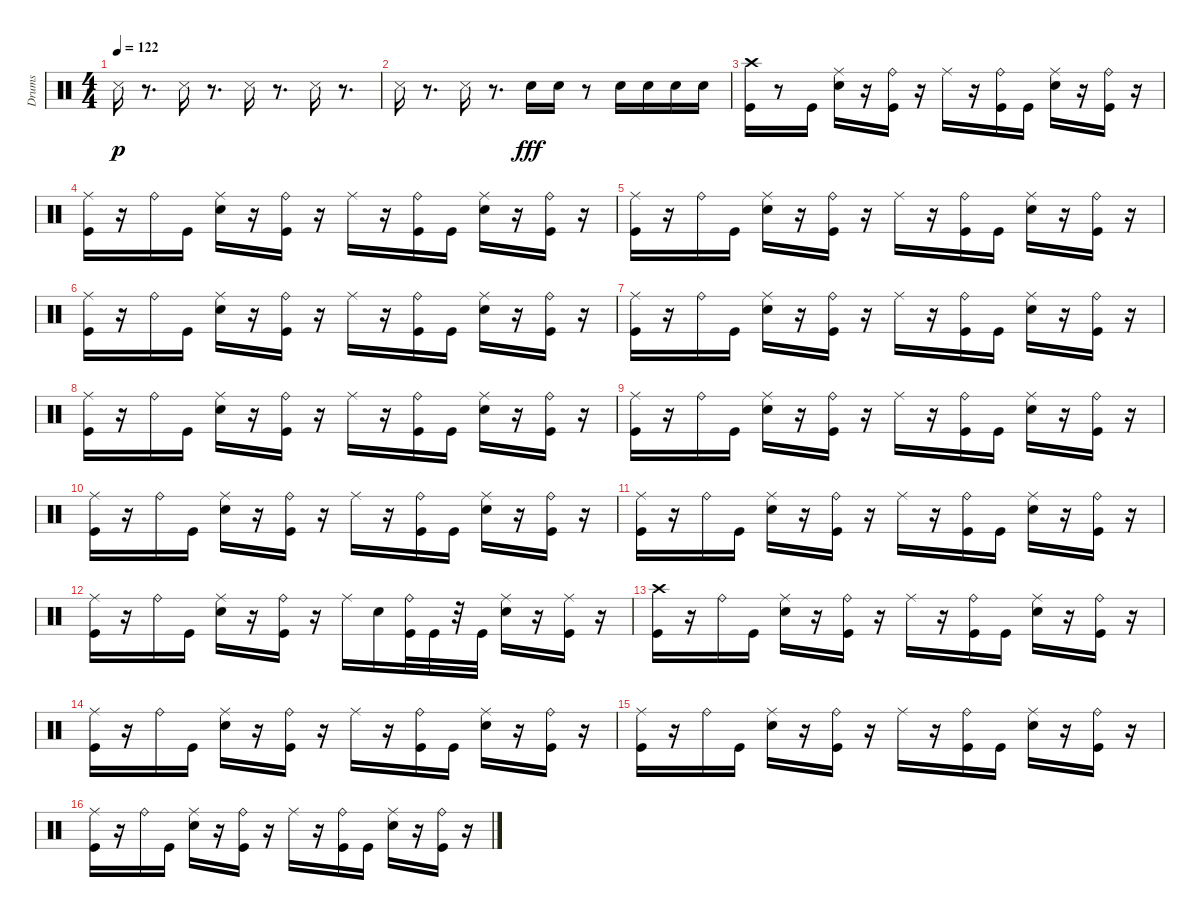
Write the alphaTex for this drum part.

\track ("Drums" "Drums") {instrument percussion}
\staff {score}
\articulation defaults
\ts (4 4)
\tempo 122
\clef neutral
\ks c "Snare (side stick) 3".16{dy p}
r.8{d} "Snare (side stick) 3".16 r.8{d} "Snare (side stick) 3".16 r.8{d} "Snare (side stick) 3".16 r.8{d} |
"Snare (side stick) 3".16 r.8{d} "Snare (side stick) 3".16 r.8{d} "Snare (hit) 2".16{dy fff} "Snare (hit) 2".16 r.8 "Snare (hit) 2".16 "Snare (hit) 2".16 "Snare (hit) 2".16 "Snare (hit) 2".16 |
("Kick (hit)" "Crash high (hit)").16 r.8 "Kick (hit)".16 ("Snare (hit) 2" "Ride (middle)").16 r.16 ("Kick (hit)" "Ride (bell)").16 r.16 "Ride (middle)".16 r.16 ("Kick (hit)" "Ride (bell)").16 "Kick (hit)".16 ("Snare (hit) 2" "Ride (middle)").16 r.16 ("Kick (hit)" "Ride (bell)").16 r.16 |
("Ride (middle)" "Kick (hit)").16 r.16 "Ride (bell)".16 "Kick (hit)".16 ("Ride (middle)" "Snare (hit) 2").16 r.16 ("Ride (bell)" "Kick (hit)").16 r.16 "Ride (middle)".16 r.16 ("Ride (bell)" "Kick (hit)").16 "Kick (hit)".16 ("Ride (middle)" "Snare (hit) 2").16 r.16 ("Ride (bell)" "Kick (hit)").16 r.16 |
("Ride (middle)" "Kick (hit)").16 r.16 "Ride (bell)".16 "Kick (hit)".16 ("Ride (middle)" "Snare (hit) 2").16 r.16 ("Ride (bell)" "Kick (hit)").16 r.16 "Ride (middle)".16 r.16 ("Ride (bell)" "Kick (hit)").16 "Kick (hit)".16 ("Ride (middle)" "Snare (hit) 2").16 r.16 ("Ride (bell)" "Kick (hit)").16 r.16 |
("Ride (middle)" "Kick (hit)").16 r.16 "Ride (bell)".16 "Kick (hit)".16 ("Ride (middle)" "Snare (hit) 2").16 r.16 ("Ride (bell)" "Kick (hit)").16 r.16 "Ride (middle)".16 r.16 ("Ride (bell)" "Kick (hit)").16 "Kick (hit)".16 ("Ride (middle)" "Snare (hit) 2").16 r.16 ("Ride (bell)" "Kick (hit)").16 r.16 |
("Ride (middle)" "Kick (hit)").16 r.16 "Ride (bell)".16 "Kick (hit)".16 ("Ride (middle)" "Snare (hit) 2").16 r.16 ("Ride (bell)" "Kick (hit)").16 r.16 "Ride (middle)".16 r.16 ("Ride (bell)" "Kick (hit)").16 "Kick (hit)".16 ("Ride (middle)" "Snare (hit) 2").16 r.16 ("Ride (bell)" "Kick (hit)").16 r.16 |
("Ride (middle)" "Kick (hit)").16 r.16 "Ride (bell)".16 "Kick (hit)".16 ("Ride (middle)" "Snare (hit) 2").16 r.16 ("Ride (bell)" "Kick (hit)").16 r.16 "Ride (middle)".16 r.16 ("Ride (bell)" "Kick (hit)").16 "Kick (hit)".16 ("Ride (middle)" "Snare (hit) 2").16 r.16 ("Ride (bell)" "Kick (hit)").16 r.16 |
("Ride (middle)" "Kick (hit)").16 r.16 "Ride (bell)".16 "Kick (hit)".16 ("Ride (middle)" "Snare (hit) 2").16 r.16 ("Ride (bell)" "Kick (hit)").16 r.16 "Ride (middle)".16 r.16 ("Ride (bell)" "Kick (hit)").16 "Kick (hit)".16 ("Ride (middle)" "Snare (hit) 2").16 r.16 ("Ride (bell)" "Kick (hit)").16 r.16 |
("Ride (middle)" "Kick (hit)").16 r.16 "Ride (bell)".16 "Kick (hit)".16 ("Ride (middle)" "Snare (hit) 2").16 r.16 ("Ride (bell)" "Kick (hit)").16 r.16 "Ride (middle)".16 r.16 ("Ride (bell)" "Kick (hit)").16 "Kick (hit)".16 ("Ride (middle)" "Snare (hit) 2").16 r.16 ("Ride (bell)" "Kick (hit)").16 r.16 |
("Ride (middle)" "Kick (hit)").16 r.16 "Ride (bell)".16 "Kick (hit)".16 ("Ride (middle)" "Snare (hit) 2").16 r.16 ("Ride (bell)" "Kick (hit)").16 r.16 "Ride (middle)".16 r.16 ("Ride (bell)" "Kick (hit)").16 "Kick (hit)".16 ("Ride (middle)" "Snare (hit) 2").16 r.16 ("Ride (bell)" "Kick (hit)").16 r.16 |
("Kick (hit)" "Ride (middle)").16 r.16 "Ride (bell)".16 "Kick (hit)".16 ("Snare (hit) 2" "Ride (middle)").16 r.16 ("Kick (hit)" "Ride (bell)").16 r.16 "Ride (middle)".16 "Snare (hit) 2".16 ("Kick (hit)" "Ride (bell)").32 "Kick (hit)".32 r.32 "Kick (hit)".32 ("Snare (hit) 2" "Ride (middle)").16 r.16 ("Kick (hit)" "Ride (middle)").16 r.16 |
("Crash high (hit)" "Kick (hit)").16 r.16 "Ride (bell)".16 "Kick (hit)".16 ("Snare (hit) 2" "Ride (middle)").16 r.16 ("Kick (hit)" "Ride (bell)").16 r.16 "Ride (middle)".16 r.16 ("Kick (hit)" "Ride (bell)").16 "Kick (hit)".16 ("Snare (hit) 2" "Ride (middle)").16 r.16 ("Kick (hit)" "Ride (bell)").16 r.16 |
("Ride (middle)" "Kick (hit)").16 r.16 "Ride (bell)".16 "Kick (hit)".16 ("Ride (middle)" "Snare (hit) 2").16 r.16 ("Ride (bell)" "Kick (hit)").16 r.16 "Ride (middle)".16 r.16 ("Ride (bell)" "Kick (hit)").16 "Kick (hit)".16 ("Ride (middle)" "Snare (hit) 2").16 r.16 ("Ride (bell)" "Kick (hit)").16 r.16 |
("Ride (middle)" "Kick (hit)").16 r.16 "Ride (bell)".16 "Kick (hit)".16 ("Ride (middle)" "Snare (hit) 2").16 r.16 ("Ride (bell)" "Kick (hit)").16 r.16 "Ride (middle)".16 r.16 ("Ride (bell)" "Kick (hit)").16 "Kick (hit)".16 ("Ride (middle)" "Snare (hit) 2").16 r.16 ("Ride (bell)" "Kick (hit)").16 r.16 |
("Ride (middle)" "Kick (hit)").16 r.16 "Ride (bell)".16 "Kick (hit)".16 ("Ride (middle)" "Snare (hit) 2").16 r.16 ("Ride (bell)" "Kick (hit)").16 r.16 "Ride (middle)".16 r.16 ("Ride (bell)" "Kick (hit)").16 "Kick (hit)".16 ("Ride (middle)" "Snare (hit) 2").16 r.16 ("Ride (bell)" "Kick (hit)").16 r.16
